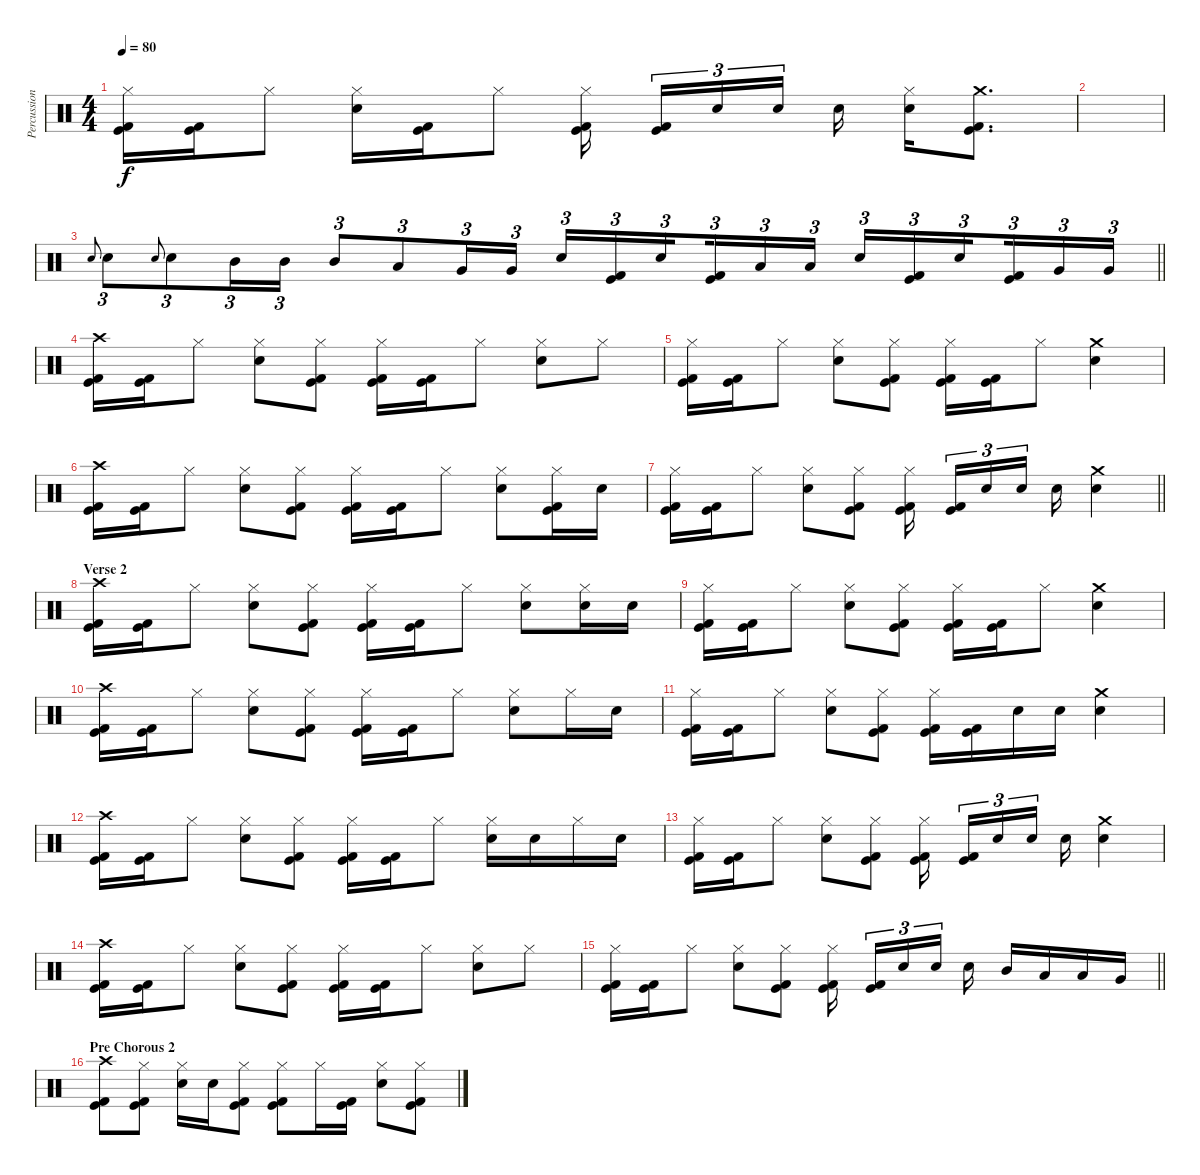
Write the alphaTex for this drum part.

\track ("Percussion" "Percussion") {instrument percussion}
\staff {score}
\articulation defaults
\ts (4 4)
\tempo 80
\clef neutral
\ks c
("Hi-Hat (closed)" "Kick (hit)" "Kick (hit) 2").16{dy f} ("Kick (hit)" "Kick (hit) 2").16 "Hi-Hat (closed)".8 ("Hi-Hat (closed)" "Electric Snare (hit)").16 ("Kick (hit)" "Kick (hit) 2").16 "Hi-Hat (closed)".8 ("Hi-Hat (closed)" "Kick (hit)" "Kick (hit) 2").16{beam splitsecondary} ("Kick (hit)" "Kick (hit) 2").16{tu (3 2)} "Electric Snare (hit)".16{tu (3 2)} "Electric Snare (hit)".16{tu (3 2) beam splitsecondary} "Electric Snare (hit)".16 ("Hi-Hat (closed)" "Electric Snare (hit)").16 ("Crash medium (hit)" "Kick (hit)" "Kick (hit) 2").8{d} |
|
\barLineRight lightlight "Electric Snare (hit)".8{gr onbeat} "Electric Snare (hit)".8{tu (3 2)} "Electric Snare (hit)".8{gr onbeat} "Electric Snare (hit)".8{tu (3 2)} "Mid Tom (hit)".16{tu (3 2)} "Mid Tom (hit)".16{tu (3 2)} "Mid Tom (hit)".8{tu (3 2)} "Low Tom (hit)".8{tu (3 2)} "Very Low Tom (hit)".16{tu (3 2)} "Very Low Tom (hit)".16{tu (3 2)} "Electric Snare (hit)".16{tu (3 2)}
("Kick (hit)" "Kick (hit) 2").16{tu (3 2)} "Electric Snare (hit)".16{tu (3 2) beam splitsecondary} ("Kick (hit)" "Kick (hit) 2").16{tu (3 2)} "Low Tom (hit)".16{tu (3 2)} "Low Tom (hit)".16{tu (3 2)} "Electric Snare (hit)".16{tu (3 2)} ("Kick (hit)" "Kick (hit) 2").16{tu (3 2)} "Electric Snare (hit)".16{tu (3 2) beam splitsecondary} ("Kick (hit)" "Kick (hit) 2").16{tu (3 2)} "Very Low Tom (hit)".16{tu (3 2)} "Very Low Tom (hit)".16{tu (3 2)} |
\section ("" "")
("Crash high (hit)" "Kick (hit)" "Kick (hit) 2").16 ("Kick (hit)" "Kick (hit) 2").16 "Hi-Hat (closed)".8 ("Hi-Hat (closed)" "Electric Snare (hit)").8 ("Hi-Hat (closed)" "Kick (hit)" "Kick (hit) 2").8 ("Hi-Hat (closed)" "Kick (hit)" "Kick (hit) 2").16 ("Kick (hit)" "Kick (hit) 2").16 "Hi-Hat (closed)".8 ("Hi-Hat (closed)" "Electric Snare (hit)").8 "Hi-Hat (closed)".8 |
("Hi-Hat (closed)" "Kick (hit)" "Kick (hit) 2").16 ("Kick (hit)" "Kick (hit) 2").16 "Hi-Hat (closed)".8 ("Hi-Hat (closed)" "Electric Snare (hit)").8 ("Hi-Hat (closed)" "Kick (hit)" "Kick (hit) 2").8 ("Hi-Hat (closed)" "Kick (hit)" "Kick (hit) 2").16 ("Kick (hit)" "Kick (hit) 2").16 "Hi-Hat (closed)".8 ("Crash medium (hit)" "Electric Snare (hit)").4 |
("Crash high (hit)" "Kick (hit)" "Kick (hit) 2").16 ("Kick (hit)" "Kick (hit) 2").16 "Hi-Hat (closed)".8 ("Hi-Hat (closed)" "Electric Snare (hit)").8 ("Hi-Hat (closed)" "Kick (hit)" "Kick (hit) 2").8 ("Hi-Hat (closed)" "Kick (hit)" "Kick (hit) 2").16 ("Kick (hit)" "Kick (hit) 2").16 "Hi-Hat (closed)".8 ("Hi-Hat (closed)" "Electric Snare (hit)").8 ("Hi-Hat (closed)" "Kick (hit)" "Kick (hit) 2").16 "Electric Snare (hit)".16 |
\barLineRight lightlight
("Hi-Hat (closed)" "Kick (hit)" "Kick (hit) 2").16 ("Kick (hit)" "Kick (hit) 2").16 "Hi-Hat (closed)".8 ("Hi-Hat (closed)" "Electric Snare (hit)").8 ("Hi-Hat (closed)" "Kick (hit)" "Kick (hit) 2").8 ("Hi-Hat (closed)" "Kick (hit)" "Kick (hit) 2").16{beam splitsecondary} ("Kick (hit)" "Kick (hit) 2").16{tu (3 2)} "Electric Snare (hit)".16{tu (3 2)} "Electric Snare (hit)".16{tu (3 2) beam splitsecondary} "Electric Snare (hit)".16 ("Crash medium (hit)" "Electric Snare (hit)").4 |
\section ("" "Verse 2")
("Crash high (hit)" "Kick (hit)" "Kick (hit) 2").16 ("Kick (hit)" "Kick (hit) 2").16 "Hi-Hat (closed)".8 ("Hi-Hat (closed)" "Electric Snare (hit)").8 ("Hi-Hat (closed)" "Kick (hit)" "Kick (hit) 2").8 ("Hi-Hat (closed)" "Kick (hit)" "Kick (hit) 2").16 ("Kick (hit)" "Kick (hit) 2").16 "Hi-Hat (closed)".8 ("Hi-Hat (closed)" "Electric Snare (hit)").8 ("Hi-Hat (closed)" "Electric Snare (hit)").16 "Electric Snare (hit)".16 |
("Hi-Hat (closed)" "Kick (hit)" "Kick (hit) 2").16 ("Kick (hit)" "Kick (hit) 2").16 "Hi-Hat (closed)".8 ("Hi-Hat (closed)" "Electric Snare (hit)").8 ("Hi-Hat (closed)" "Kick (hit)" "Kick (hit) 2").8 ("Hi-Hat (closed)" "Kick (hit)" "Kick (hit) 2").16 ("Kick (hit)" "Kick (hit) 2").16 "Hi-Hat (closed)".8 ("Crash medium (hit)" "Electric Snare (hit)").4 |
("Crash high (hit)" "Kick (hit)" "Kick (hit) 2").16 ("Kick (hit)" "Kick (hit) 2").16 "Hi-Hat (closed)".8 ("Hi-Hat (closed)" "Electric Snare (hit)").8 ("Hi-Hat (closed)" "Kick (hit)" "Kick (hit) 2").8 ("Hi-Hat (closed)" "Kick (hit)" "Kick (hit) 2").16 ("Kick (hit)" "Kick (hit) 2").16 "Hi-Hat (closed)".8 ("Hi-Hat (closed)" "Electric Snare (hit)").8 "Hi-Hat (closed)".16 "Electric Snare (hit)".16 |
("Hi-Hat (closed)" "Kick (hit)" "Kick (hit) 2").16 ("Kick (hit)" "Kick (hit) 2").16 "Hi-Hat (closed)".8 ("Hi-Hat (closed)" "Electric Snare (hit)").8 ("Hi-Hat (closed)" "Kick (hit)" "Kick (hit) 2").8 ("Hi-Hat (closed)" "Kick (hit)" "Kick (hit) 2").16 ("Kick (hit)" "Kick (hit) 2").16 "Electric Snare (hit)".16 "Electric Snare (hit)".16 ("Crash medium (hit)" "Electric Snare (hit)").4 |
("Crash high (hit)" "Kick (hit)" "Kick (hit) 2").16 ("Kick (hit)" "Kick (hit) 2").16 "Hi-Hat (closed)".8 ("Hi-Hat (closed)" "Electric Snare (hit)").8 ("Hi-Hat (closed)" "Kick (hit)" "Kick (hit) 2").8 ("Hi-Hat (closed)" "Kick (hit)" "Kick (hit) 2").16 ("Kick (hit)" "Kick (hit) 2").16 "Hi-Hat (closed)".8 ("Hi-Hat (closed)" "Electric Snare (hit)").16 "Electric Snare (hit)".16 "Hi-Hat (closed)".16 "Electric Snare (hit)".16 |
("Hi-Hat (closed)" "Kick (hit)" "Kick (hit) 2").16 ("Kick (hit)" "Kick (hit) 2").16 "Hi-Hat (closed)".8 ("Hi-Hat (closed)" "Electric Snare (hit)").8 ("Hi-Hat (closed)" "Kick (hit)" "Kick (hit) 2").8 ("Hi-Hat (closed)" "Kick (hit)" "Kick (hit) 2").16{beam splitsecondary} ("Kick (hit)" "Kick (hit) 2").16{tu (3 2)} "Electric Snare (hit)".16{tu (3 2)} "Electric Snare (hit)".16{tu (3 2) beam splitsecondary} "Electric Snare (hit)".16 ("Crash medium (hit)" "Electric Snare (hit)").4 |
("Crash high (hit)" "Kick (hit)" "Kick (hit) 2").16 ("Kick (hit)" "Kick (hit) 2").16 "Hi-Hat (closed)".8 ("Hi-Hat (closed)" "Electric Snare (hit)").8 ("Hi-Hat (closed)" "Kick (hit)" "Kick (hit) 2").8 ("Hi-Hat (closed)" "Kick (hit)" "Kick (hit) 2").16 ("Kick (hit)" "Kick (hit) 2").16 "Hi-Hat (closed)".8 ("Hi-Hat (closed)" "Electric Snare (hit)").8 "Hi-Hat (closed)".8 |
\barLineRight lightlight
("Hi-Hat (closed)" "Kick (hit)" "Kick (hit) 2").16 ("Kick (hit)" "Kick (hit) 2").16 "Hi-Hat (closed)".8 ("Hi-Hat (closed)" "Electric Snare (hit)").8 ("Hi-Hat (closed)" "Kick (hit)" "Kick (hit) 2").8 ("Hi-Hat (closed)" "Kick (hit)" "Kick (hit) 2").16{beam splitsecondary} ("Kick (hit)" "Kick (hit) 2").16{tu (3 2)} "Electric Snare (hit)".16{tu (3 2)} "Electric Snare (hit)".16{tu (3 2) beam splitsecondary} "Electric Snare (hit)".16 "Mid Tom (hit)".16 "Low Tom (hit)".16 "Low Tom (hit)".16 "Very Low Tom (hit)".16 |
\section ("" "Pre Chorous 2")
("Crash high (hit)" "Kick (hit)" "Kick (hit) 2").8 ("Hi-Hat (closed)" "Kick (hit)" "Kick (hit) 2").8 ("Hi-Hat (closed)" "Electric Snare (hit)").16 "Electric Snare (hit)".16 ("Hi-Hat (closed)" "Kick (hit)" "Kick (hit) 2").8 ("Hi-Hat (closed)" "Kick (hit)" "Kick (hit) 2").8 "Hi-Hat (closed)".16 ("Kick (hit)" "Kick (hit) 2").16 ("Hi-Hat (closed)" "Electric Snare (hit)").8 ("Hi-Hat (closed)" "Kick (hit)" "Kick (hit) 2").8
